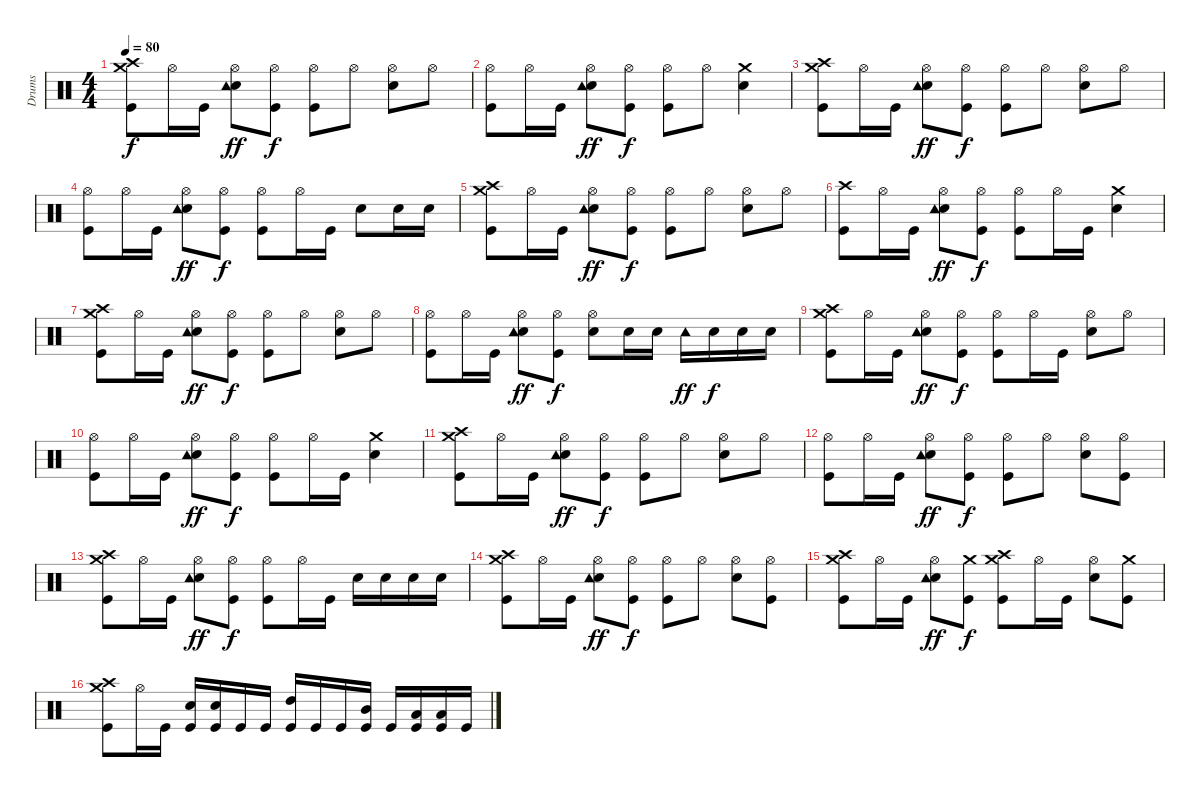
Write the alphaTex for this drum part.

\track ("Drums" "Drums") {instrument percussion}
\staff {score}
\articulation defaults
\ts (4 4)
\tempo 80
\clef neutral
\ks c
("Crash high (hit)" "Crash medium (hit)" "Kick (hit)").8{dy f} "Hi-Hat (open)".16 "Kick (hit)".16 ("Electric Snare (hit)" "Hi-Hat (open)" "Tambourine (hit)").8{dy ff} ("Hi-Hat (open)" "Kick (hit)").8{dy f} ("Hi-Hat (open)" "Kick (hit)").8 "Hi-Hat (open)".8 ("Electric Snare (hit)" "Hi-Hat (open)").8 "Hi-Hat (open)".8 |
("Hi-Hat (open)" "Kick (hit)").8 "Hi-Hat (open)".16 "Kick (hit)".16 ("Electric Snare (hit)" "Hi-Hat (open)" "Tambourine (hit)").8{dy ff} ("Hi-Hat (open)" "Kick (hit)").8{dy f} ("Hi-Hat (open)" "Kick (hit)").8 "Hi-Hat (open)".8 ("Electric Snare (hit)" "Crash medium (hit)").4 |
("Crash high (hit)" "Crash medium (hit)" "Kick (hit)").8 "Hi-Hat (open)".16 "Kick (hit)".16 ("Electric Snare (hit)" "Hi-Hat (open)" "Tambourine (hit)").8{dy ff} ("Hi-Hat (open)" "Kick (hit)").8{dy f} ("Hi-Hat (open)" "Kick (hit)").8 "Hi-Hat (open)".8 ("Electric Snare (hit)" "Hi-Hat (open)").8 "Hi-Hat (open)".8 |
("Hi-Hat (open)" "Kick (hit)").8 "Hi-Hat (open)".16 "Kick (hit)".16 ("Electric Snare (hit)" "Hi-Hat (open)" "Tambourine (hit)").8{dy ff} ("Hi-Hat (open)" "Kick (hit)").8{dy f} ("Hi-Hat (open)" "Kick (hit)").8 "Hi-Hat (open)".16 "Kick (hit)".16 "Electric Snare (hit)".8 "Electric Snare (hit)".16 "Electric Snare (hit)".16 |
("Crash high (hit)" "Crash medium (hit)" "Kick (hit)").8 "Hi-Hat (open)".16 "Kick (hit)".16 ("Electric Snare (hit)" "Hi-Hat (open)" "Tambourine (hit)").8{dy ff} ("Hi-Hat (open)" "Kick (hit)").8{dy f} ("Hi-Hat (open)" "Kick (hit)").8 "Hi-Hat (open)".8 ("Electric Snare (hit)" "Hi-Hat (open)").8 "Hi-Hat (open)".8 |
("Crash high (hit)" "Kick (hit)").8 "Hi-Hat (open)".16 "Kick (hit)".16 ("Electric Snare (hit)" "Hi-Hat (open)" "Tambourine (hit)").8{dy ff} ("Hi-Hat (open)" "Kick (hit)").8{dy f} ("Hi-Hat (open)" "Kick (hit)").8 "Hi-Hat (open)".16 "Kick (hit)".16 ("Electric Snare (hit)" "Crash medium (hit)").4 |
("Crash high (hit)" "Crash medium (hit)" "Kick (hit)").8 "Hi-Hat (open)".16 "Kick (hit)".16 ("Electric Snare (hit)" "Hi-Hat (open)" "Tambourine (hit)").8{dy ff} ("Hi-Hat (open)" "Kick (hit)").8{dy f} ("Hi-Hat (open)" "Kick (hit)").8 "Hi-Hat (open)".8 ("Electric Snare (hit)" "Hi-Hat (open)").8 "Hi-Hat (open)".8 |
("Hi-Hat (open)" "Kick (hit)").8 "Hi-Hat (open)".16 "Kick (hit)".16 ("Electric Snare (hit)" "Hi-Hat (open)" "Tambourine (hit)").8{dy ff} ("Hi-Hat (open)" "Kick (hit)").8{dy f} ("Electric Snare (hit)" "Hi-Hat (open)").8 "Electric Snare (hit)".16 "Electric Snare (hit)".16 "Tambourine (hit)".16{dy ff} "Electric Snare (hit)".16{dy f} "Electric Snare (hit)".16 "Electric Snare (hit)".16 |
("Crash high (hit)" "Crash medium (hit)" "Kick (hit)").8 "Hi-Hat (open)".16 "Kick (hit)".16 ("Electric Snare (hit)" "Hi-Hat (open)" "Tambourine (hit)").8{dy ff} ("Hi-Hat (open)" "Kick (hit)").8{dy f} ("Hi-Hat (open)" "Kick (hit)").8 "Hi-Hat (open)".16 "Kick (hit)".16 ("Electric Snare (hit)" "Hi-Hat (open)").8 "Hi-Hat (open)".8 |
("Hi-Hat (open)" "Kick (hit)").8 "Hi-Hat (open)".16 "Kick (hit)".16 ("Electric Snare (hit)" "Hi-Hat (open)" "Tambourine (hit)").8{dy ff} ("Hi-Hat (open)" "Kick (hit)").8{dy f} ("Hi-Hat (open)" "Kick (hit)").8 "Hi-Hat (open)".16 "Kick (hit)".16 ("Electric Snare (hit)" "Crash medium (hit)").4 |
("Crash high (hit)" "Crash medium (hit)" "Kick (hit)").8 "Hi-Hat (open)".16 "Kick (hit)".16 ("Electric Snare (hit)" "Hi-Hat (open)" "Tambourine (hit)").8{dy ff} ("Hi-Hat (open)" "Kick (hit)").8{dy f} ("Hi-Hat (open)" "Kick (hit)").8 "Hi-Hat (open)".8 ("Electric Snare (hit)" "Hi-Hat (open)").8 "Hi-Hat (open)".8 |
("Hi-Hat (open)" "Kick (hit)").8 "Hi-Hat (open)".16 "Kick (hit)".16 ("Electric Snare (hit)" "Hi-Hat (open)" "Tambourine (hit)").8{dy ff} ("Hi-Hat (open)" "Kick (hit)").8{dy f} ("Hi-Hat (open)" "Kick (hit)").8 "Hi-Hat (open)".8 ("Electric Snare (hit)" "Hi-Hat (open)").8 ("Hi-Hat (open)" "Kick (hit)").8 |
("Crash high (hit)" "Crash medium (hit)" "Kick (hit)").8 "Hi-Hat (open)".16 "Kick (hit)".16 ("Electric Snare (hit)" "Hi-Hat (open)" "Tambourine (hit)").8{dy ff} ("Hi-Hat (open)" "Kick (hit)").8{dy f} ("Hi-Hat (open)" "Kick (hit)").8 "Hi-Hat (open)".16 "Kick (hit)".16 "Electric Snare (hit)".16 "Electric Snare (hit)".16 "Electric Snare (hit)".16 "Electric Snare (hit)".16 |
("Crash high (hit)" "Crash medium (hit)" "Kick (hit)").8 "Hi-Hat (open)".16 "Kick (hit)".16 ("Electric Snare (hit)" "Hi-Hat (open)" "Tambourine (hit)").8{dy ff} ("Hi-Hat (open)" "Kick (hit)").8{dy f} ("Hi-Hat (open)" "Kick (hit)").8 "Hi-Hat (open)".8 ("Electric Snare (hit)" "Hi-Hat (open)").8 ("Hi-Hat (open)" "Kick (hit)").8 |
("Crash high (hit)" "Crash medium (hit)" "Kick (hit)").8 "Hi-Hat (open)".16 "Kick (hit)".16 ("Electric Snare (hit)" "Hi-Hat (open)" "Tambourine (hit)").8{dy ff} ("Crash medium (hit)" "Kick (hit)").8{dy f} ("Crash high (hit)" "Crash medium (hit)" "Kick (hit)").8 "Hi-Hat (open)".16 "Kick (hit)".16 ("Electric Snare (hit)" "Hi-Hat (open)").8 ("Crash medium (hit)" "Kick (hit)").8 |
("Crash high (hit)" "Crash medium (hit)" "Kick (hit)").8 "Hi-Hat (open)".16 "Kick (hit)".16 ("Electric Snare (hit)" "Kick (hit)").16 ("Electric Snare (hit)" "Kick (hit)").16 "Kick (hit)".16 "Kick (hit)".16 ("High Tom (hit)" "Kick (hit)").16 "Kick (hit)".16 "Kick (hit)".16 ("Mid Tom (hit)" "Kick (hit)").16 "Kick (hit)".16 ("Low Tom (hit)" "Kick (hit)").16 ("Low Tom (hit)" "Kick (hit)").16 "Kick (hit)".16
